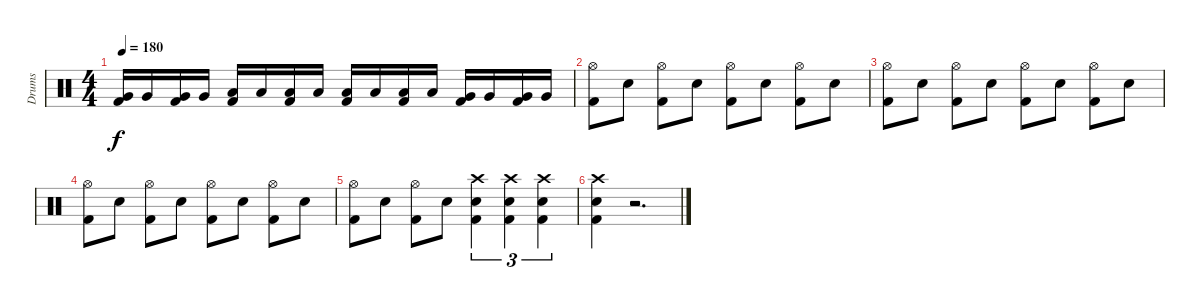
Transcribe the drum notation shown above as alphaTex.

\track ("Drums" "Drums") {instrument percussion}
\staff {score}
\articulation defaults
\ts (4 4)
\tempo 180
\clef neutral
\ks c
("Kick (hit) 2" "Very Low Tom (hit)").16{dy f} "Very Low Tom (hit)".16 ("Kick (hit) 2" "Very Low Tom (hit)").16 "Very Low Tom (hit)".16 ("Kick (hit) 2" "Low Tom (hit)").16 "Low Tom (hit)".16 ("Kick (hit) 2" "Low Tom (hit)").16 "Low Tom (hit)".16 ("Kick (hit) 2" "Low Floor Tom (hit)").16 "Low Floor Tom (hit)".16 ("Kick (hit) 2" "Low Floor Tom (hit)").16 "Low Floor Tom (hit)".16 ("Kick (hit) 2" "Very Low Tom (hit)").16 "Very Low Tom (hit)".16 ("Kick (hit) 2" "Very Low Tom (hit)").16 "Very Low Tom (hit)".16 |
("Kick (hit) 2" "Hi-Hat (open)").8 "Electric Snare (hit)".8 ("Kick (hit) 2" "Hi-Hat (open)").8 "Electric Snare (hit)".8 ("Kick (hit) 2" "Hi-Hat (open)").8 "Electric Snare (hit)".8 ("Kick (hit) 2" "Hi-Hat (open)").8 "Electric Snare (hit)".8 |
("Kick (hit) 2" "Hi-Hat (open)").8 "Electric Snare (hit)".8 ("Kick (hit) 2" "Hi-Hat (open)").8 "Electric Snare (hit)".8 ("Kick (hit) 2" "Hi-Hat (open)").8 "Electric Snare (hit)".8 ("Kick (hit) 2" "Hi-Hat (open)").8 "Electric Snare (hit)".8 |
("Kick (hit) 2" "Hi-Hat (open)").8 "Electric Snare (hit)".8 ("Kick (hit) 2" "Hi-Hat (open)").8 "Electric Snare (hit)".8 ("Kick (hit) 2" "Hi-Hat (open)").8 "Electric Snare (hit)".8 ("Kick (hit) 2" "Hi-Hat (open)").8 "Electric Snare (hit)".8 |
("Kick (hit) 2" "Hi-Hat (open)").8 "Electric Snare (hit)".8 ("Kick (hit) 2" "Hi-Hat (open)").8 "Electric Snare (hit)".8 ("Kick (hit) 2" "Electric Snare (hit)" "Crash high (hit)").4{tu (3 2)} ("Kick (hit) 2" "Electric Snare (hit)" "Crash high (hit)").4{tu (3 2)} ("Kick (hit) 2" "Electric Snare (hit)" "Crash high (hit)").4{tu (3 2)} |
("Kick (hit) 2" "Electric Snare (hit)" "Crash high (hit)").4 r.2{d}
